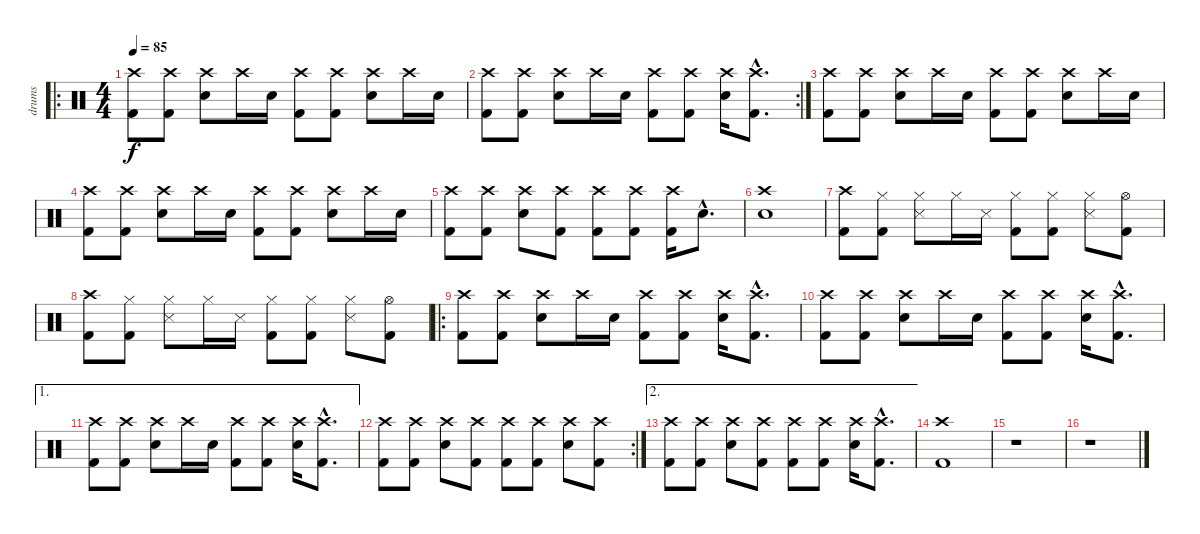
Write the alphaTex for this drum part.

\track ("drums" "drums") {instrument percussion}
\staff {score}
\articulation defaults
\ro
\ts (4 4)
\tempo 85
\clef neutral
\ks c
("Crash high (hit)" "Kick (hit) 2").8{dy f} ("Crash high (hit)" "Kick (hit) 2").8 ("Crash high (hit)" "Snare (hit) 2").8 "Crash high (hit)".16 "Snare (hit) 2".16 ("Crash high (hit)" "Kick (hit) 2").8 ("Crash high (hit)" "Kick (hit) 2").8 ("Crash high (hit)" "Snare (hit) 2").8 "Crash high (hit)".16 "Snare (hit) 2".16 |
\rc 2
("Crash high (hit)" "Kick (hit) 2").8 ("Crash high (hit)" "Kick (hit) 2").8 ("Crash high (hit)" "Snare (hit) 2").8 "Crash high (hit)".16 "Snare (hit) 2".16 ("Crash high (hit)" "Kick (hit) 2").8 ("Crash high (hit)" "Kick (hit) 2").8 ("Crash high (hit)" "Snare (hit) 2").16 ("Crash high (hit)"{hac} "Kick (hit) 2"{hac}).8{d} |
("Crash high (hit)" "Kick (hit) 2").8 ("Crash high (hit)" "Kick (hit) 2").8 ("Crash high (hit)" "Snare (hit) 2").8 "Crash high (hit)".16 "Snare (hit) 2".16 ("Crash high (hit)" "Kick (hit) 2").8 ("Crash high (hit)" "Kick (hit) 2").8 ("Crash high (hit)" "Snare (hit) 2").8 "Crash high (hit)".16 "Snare (hit) 2".16 |
("Crash high (hit)" "Kick (hit) 2").8 ("Crash high (hit)" "Kick (hit) 2").8 ("Crash high (hit)" "Snare (hit) 2").8 "Crash high (hit)".16 "Snare (hit) 2".16 ("Crash high (hit)" "Kick (hit) 2").8 ("Crash high (hit)" "Kick (hit) 2").8 ("Crash high (hit)" "Snare (hit) 2").8 "Crash high (hit)".16 "Snare (hit) 2".16 |
("Crash high (hit)" "Kick (hit) 2").8 ("Crash high (hit)" "Kick (hit) 2").8 ("Crash high (hit)" "Snare (hit) 2").8 ("Crash high (hit)" "Kick (hit) 2").8 ("Crash high (hit)" "Kick (hit) 2").8 ("Crash high (hit)" "Kick (hit) 2").8 ("Crash high (hit)" "Kick (hit) 2").16 "Snare (hit) 2"{hac}.8{d} |
("Crash high (hit)" "Snare (hit) 2").1 |
("Crash high (hit)" "Kick (hit) 2").8 ("Hi-Hat (closed)" "Kick (hit) 2").8 ("Hi-Hat (closed)" "Snare (side stick) 3").8 "Hi-Hat (closed)".16 "Snare (side stick) 3".16 ("Hi-Hat (closed)" "Kick (hit) 2").8 ("Hi-Hat (closed)" "Kick (hit) 2").8 ("Hi-Hat (closed)" "Snare (side stick) 3").8 ("Hi-Hat (open)" "Kick (hit) 2").8 |
("Crash high (hit)" "Kick (hit) 2").8 ("Hi-Hat (closed)" "Kick (hit) 2").8 ("Hi-Hat (closed)" "Snare (side stick) 3").8 "Hi-Hat (closed)".16 "Snare (side stick) 3".16 ("Hi-Hat (closed)" "Kick (hit) 2").8 ("Hi-Hat (closed)" "Kick (hit) 2").8 ("Hi-Hat (closed)" "Snare (side stick) 3").8 ("Hi-Hat (open)" "Kick (hit) 2").8 |
\ro
("Crash high (hit)" "Kick (hit) 2").8 ("Crash high (hit)" "Kick (hit) 2").8 ("Crash high (hit)" "Snare (hit) 2").8 "Crash high (hit)".16 "Snare (hit) 2".16 ("Crash high (hit)" "Kick (hit) 2").8 ("Crash high (hit)" "Kick (hit) 2").8 ("Crash high (hit)" "Snare (hit) 2").16 ("Crash high (hit)"{hac} "Kick (hit) 2"{hac}).8{d} |
("Crash high (hit)" "Kick (hit) 2").8 ("Crash high (hit)" "Kick (hit) 2").8 ("Crash high (hit)" "Snare (hit) 2").8 "Crash high (hit)".16 "Snare (hit) 2".16 ("Crash high (hit)" "Kick (hit) 2").8 ("Crash high (hit)" "Kick (hit) 2").8 ("Crash high (hit)" "Snare (hit) 2").16 ("Crash high (hit)"{hac} "Kick (hit) 2"{hac}).8{d} |
\ae 1
("Crash high (hit)" "Kick (hit) 2").8 ("Crash high (hit)" "Kick (hit) 2").8 ("Crash high (hit)" "Snare (hit) 2").8 "Crash high (hit)".16 "Snare (hit) 2".16 ("Crash high (hit)" "Kick (hit) 2").8 ("Crash high (hit)" "Kick (hit) 2").8 ("Crash high (hit)" "Snare (hit) 2").16 ("Crash high (hit)"{hac} "Kick (hit) 2"{hac}).8{d} |
\rc 2
("Crash high (hit)" "Kick (hit) 2").8 ("Crash high (hit)" "Kick (hit) 2").8 ("Crash high (hit)" "Snare (hit) 2").8 ("Crash high (hit)" "Kick (hit) 2").8 ("Crash high (hit)" "Kick (hit) 2").8 ("Crash high (hit)" "Kick (hit) 2").8 ("Crash high (hit)" "Snare (hit) 2").8 ("Crash high (hit)" "Kick (hit) 2").8 |
\ae 2
("Crash high (hit)" "Kick (hit) 2").8 ("Crash high (hit)" "Kick (hit) 2").8 ("Crash high (hit)" "Snare (hit) 2").8 ("Crash high (hit)" "Kick (hit) 2").8 ("Crash high (hit)" "Kick (hit) 2").8 ("Crash high (hit)" "Kick (hit) 2").8 ("Crash high (hit)" "Snare (hit) 2").16 ("Crash high (hit)"{hac} "Kick (hit) 2"{hac}).8{d} |
("Crash high (hit)" "Kick (hit) 2").1 |
r.1 |
r.1
